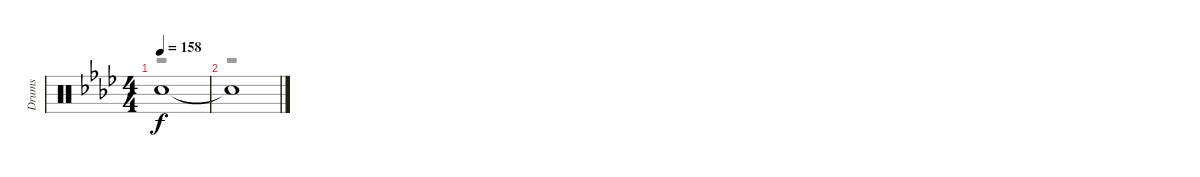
\track ("Drums" "Drums") {instrument percussion}
\staff {score}
\articulation defaults
\voice
\ts (4 4)
\tempo 158
\clef neutral
\ks ab "Snare (hit)"{t}.1{dy f}
|
"Snare (hit)"{t}.1
\voice
\clef neutral
\ottava regular
\simile none
\ks ab
r.1{dy fff} |
r.1
